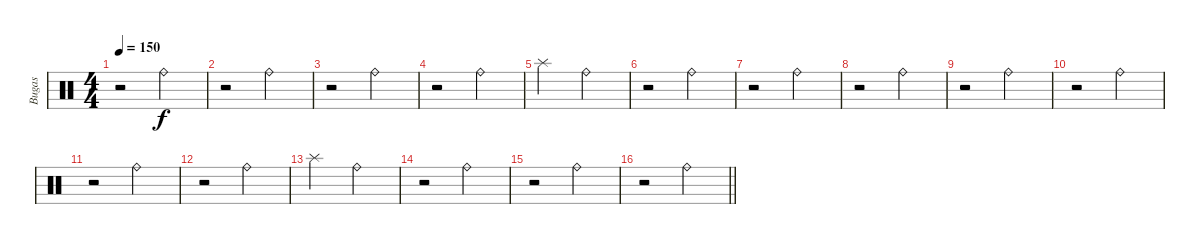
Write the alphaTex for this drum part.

\track ("Bugas" "Bugas") {instrument percussion}
\staff {score}
\articulation defaults
\ts (4 4)
\tempo 150
\clef neutral
\ks c
r.2{dy f} "Ride (bell)".2 |
r.2 "Ride (bell)".2 |
r.2 "Ride (bell)".2 |
r.2 "Ride (bell)".2 |
"Splash (hit)".2 "Ride (bell)".2 |
r.2 "Ride (bell)".2 |
r.2 "Ride (bell)".2 |
r.2 "Ride (bell)".2 |
r.2 "Ride (bell)".2 |
r.2 "Ride (bell)".2 |
r.2 "Ride (bell)".2 |
r.2 "Ride (bell)".2 |
"Splash (hit)".2 "Ride (bell)".2 |
r.2 "Ride (bell)".2 |
r.2 "Ride (bell)".2 |
\barLineRight lightlight
r.2 "Ride (bell)".2
